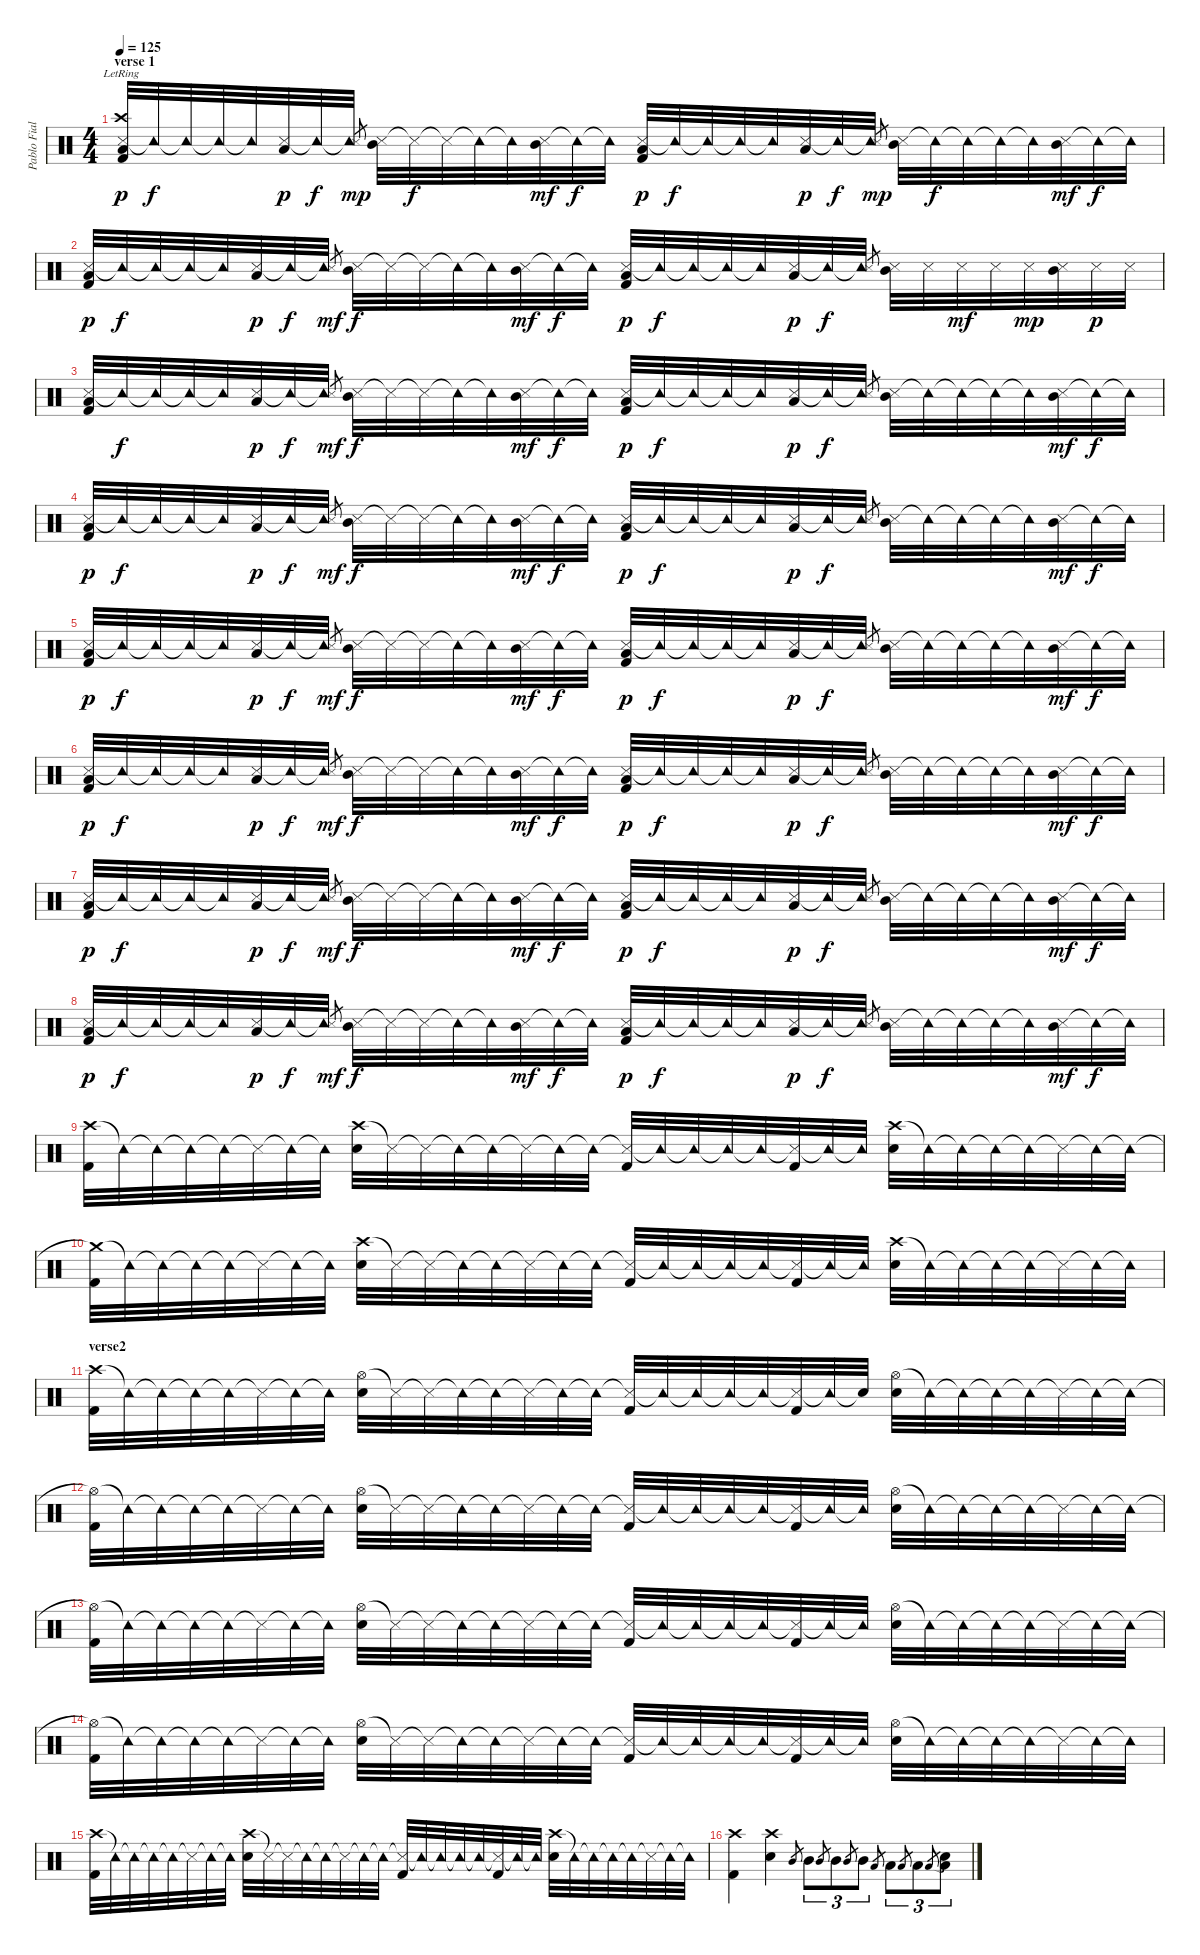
\track ("Pablo Fiallo" "Pablo Fial") {instrument percussion}
\staff {score}
\articulation defaults
\ts (4 4)
\section ("" "verse 1")
\tempo 125
\clef neutral
\ks c
("Snare (side stick) 3" "Crash high (hit)"{lr} "Low Floor Tom (hit)" "Kick (hit) 2").32{dy p} "Tambourine (hit)"{t}.32{dy f} "Tambourine (hit)"{t}.32 "Tambourine (hit)"{t}.32 "Tambourine (hit)"{t}.32 ("Snare (side stick) 3" "Low Floor Tom (hit)").32{dy p} "Tambourine (hit)"{t}.32{dy f} "Tambourine (hit)"{t}.32 "Snare (side stick) 3".8{gr dy mp} ("Snare (side stick) 3" "Mid Tom (hit)").32 "Snare (side stick) 3"{t}.32{dy f} "Snare (side stick) 3"{t}.32 "Tambourine (hit)"{t}.32 "Tambourine (hit)"{t}.32 ("Snare (side stick) 3" "Mid Tom (hit)").32{dy mf} "Tambourine (hit)"{t}.32{dy f} "Tambourine (hit)"{t}.32 ("Snare (side stick) 3" "Low Floor Tom (hit)" "Kick (hit) 2").32{dy p} "Tambourine (hit)"{t}.32{dy f} "Tambourine (hit)"{t}.32 "Tambourine (hit)"{t}.32 "Tambourine (hit)"{t}.32 ("Snare (side stick) 3" "Low Floor Tom (hit)").32{dy p} "Tambourine (hit)"{t}.32{dy f} "Tambourine (hit)"{t}.32 "Snare (side stick) 3".8{gr dy mp} ("Snare (side stick) 3" "Mid Tom (hit)").32 "Tambourine (hit)"{t}.32{dy f} "Tambourine (hit)"{t}.32 "Tambourine (hit)"{t}.32 "Tambourine (hit)"{t}.32 ("Snare (side stick) 3" "Mid Tom (hit)").32{dy mf} "Tambourine (hit)"{t}.32{dy f} "Tambourine (hit)"{t}.32 |
("Snare (side stick) 3" "Low Floor Tom (hit)" "Kick (hit) 2").32{dy p} "Tambourine (hit)"{t}.32{dy f} "Tambourine (hit)"{t}.32 "Tambourine (hit)"{t}.32 "Tambourine (hit)"{t}.32 ("Snare (side stick) 3" "Low Floor Tom (hit)").32{dy p} "Tambourine (hit)"{t}.32{dy f} "Tambourine (hit)"{t}.32 "Snare (side stick) 3".8{gr dy mf} ("Snare (side stick) 3" "Mid Tom (hit)").32{dy f} "Snare (side stick) 3"{t}.32 "Snare (side stick) 3"{t}.32 "Tambourine (hit)"{t}.32 "Tambourine (hit)"{t}.32 ("Snare (side stick) 3" "Mid Tom (hit)").32{dy mf} "Tambourine (hit)"{t}.32{dy f} "Tambourine (hit)"{t}.32 ("Snare (side stick) 3" "Low Floor Tom (hit)" "Kick (hit) 2").32{dy p} "Tambourine (hit)"{t}.32{dy f} "Tambourine (hit)"{t}.32 "Tambourine (hit)"{t}.32 "Tambourine (hit)"{t}.32 ("Snare (side stick) 3" "Low Floor Tom (hit)").32{dy p} "Tambourine (hit)"{t}.32{dy f} "Tambourine (hit)"{t}.32 "Snare (side stick) 3".8{gr} ("Snare (side stick) 3" "Mid Tom (hit)").32 "Snare (side stick) 3".32 "Snare (side stick) 3".32{dy mf} "Snare (side stick) 3".32 "Snare (side stick) 3".32{dy mp} ("Snare (side stick) 3" "Mid Tom (hit)").32 "Snare (side stick) 3".32{dy p} "Snare (side stick) 3".32 |
("Snare (side stick) 3" "Low Floor Tom (hit)" "Kick (hit) 2").32 "Tambourine (hit)"{t}.32{dy f} "Tambourine (hit)"{t}.32 "Tambourine (hit)"{t}.32 "Tambourine (hit)"{t}.32 ("Snare (side stick) 3" "Low Floor Tom (hit)").32{dy p} "Tambourine (hit)"{t}.32{dy f} "Tambourine (hit)"{t}.32 "Snare (side stick) 3".8{gr dy mf} ("Snare (side stick) 3" "Mid Tom (hit)").32{dy f} "Snare (side stick) 3"{t}.32 "Snare (side stick) 3"{t}.32 "Tambourine (hit)"{t}.32 "Tambourine (hit)"{t}.32 ("Snare (side stick) 3" "Mid Tom (hit)").32{dy mf} "Tambourine (hit)"{t}.32{dy f} "Tambourine (hit)"{t}.32 ("Snare (side stick) 3" "Low Floor Tom (hit)" "Kick (hit) 2").32{dy p} "Tambourine (hit)"{t}.32{dy f} "Tambourine (hit)"{t}.32 "Tambourine (hit)"{t}.32 "Tambourine (hit)"{t}.32 ("Snare (side stick) 3" "Low Floor Tom (hit)").32{dy p} "Tambourine (hit)"{t}.32{dy f} "Tambourine (hit)"{t}.32 "Snare (side stick) 3".8{gr} ("Snare (side stick) 3" "Mid Tom (hit)").32 "Tambourine (hit)"{t}.32 "Tambourine (hit)"{t}.32 "Tambourine (hit)"{t}.32 "Tambourine (hit)"{t}.32 ("Snare (side stick) 3" "Mid Tom (hit)").32{dy mf} "Tambourine (hit)"{t}.32{dy f} "Tambourine (hit)"{t}.32 |
("Snare (side stick) 3" "Low Floor Tom (hit)" "Kick (hit) 2").32{dy p} "Tambourine (hit)"{t}.32{dy f} "Tambourine (hit)"{t}.32 "Tambourine (hit)"{t}.32 "Tambourine (hit)"{t}.32 ("Snare (side stick) 3" "Low Floor Tom (hit)").32{dy p} "Tambourine (hit)"{t}.32{dy f} "Tambourine (hit)"{t}.32 "Snare (side stick) 3".8{gr dy mf} ("Snare (side stick) 3" "Mid Tom (hit)").32{dy f} "Snare (side stick) 3"{t}.32 "Snare (side stick) 3"{t}.32 "Tambourine (hit)"{t}.32 "Tambourine (hit)"{t}.32 ("Snare (side stick) 3" "Mid Tom (hit)").32{dy mf} "Tambourine (hit)"{t}.32{dy f} "Tambourine (hit)"{t}.32 ("Snare (side stick) 3" "Low Floor Tom (hit)" "Kick (hit) 2").32{dy p} "Tambourine (hit)"{t}.32{dy f} "Tambourine (hit)"{t}.32 "Tambourine (hit)"{t}.32 "Tambourine (hit)"{t}.32 ("Snare (side stick) 3" "Low Floor Tom (hit)").32{dy p} "Tambourine (hit)"{t}.32{dy f} "Tambourine (hit)"{t}.32 "Snare (side stick) 3".8{gr} ("Snare (side stick) 3" "Mid Tom (hit)").32 "Tambourine (hit)"{t}.32 "Tambourine (hit)"{t}.32 "Tambourine (hit)"{t}.32 "Tambourine (hit)"{t}.32 ("Snare (side stick) 3" "Mid Tom (hit)").32{dy mf} "Tambourine (hit)"{t}.32{dy f} "Tambourine (hit)"{t}.32 |
("Snare (side stick) 3" "Low Floor Tom (hit)" "Kick (hit) 2").32{dy p} "Tambourine (hit)"{t}.32{dy f} "Tambourine (hit)"{t}.32 "Tambourine (hit)"{t}.32 "Tambourine (hit)"{t}.32 ("Snare (side stick) 3" "Low Floor Tom (hit)").32{dy p} "Tambourine (hit)"{t}.32{dy f} "Tambourine (hit)"{t}.32 "Snare (side stick) 3".8{gr dy mf} ("Snare (side stick) 3" "Mid Tom (hit)").32{dy f} "Snare (side stick) 3"{t}.32 "Snare (side stick) 3"{t}.32 "Tambourine (hit)"{t}.32 "Tambourine (hit)"{t}.32 ("Snare (side stick) 3" "Mid Tom (hit)").32{dy mf} "Tambourine (hit)"{t}.32{dy f} "Tambourine (hit)"{t}.32 ("Snare (side stick) 3" "Low Floor Tom (hit)" "Kick (hit) 2").32{dy p} "Tambourine (hit)"{t}.32{dy f} "Tambourine (hit)"{t}.32 "Tambourine (hit)"{t}.32 "Tambourine (hit)"{t}.32 ("Snare (side stick) 3" "Low Floor Tom (hit)").32{dy p} "Tambourine (hit)"{t}.32{dy f} "Tambourine (hit)"{t}.32 "Snare (side stick) 3".8{gr} ("Snare (side stick) 3" "Mid Tom (hit)").32 "Tambourine (hit)"{t}.32 "Tambourine (hit)"{t}.32 "Tambourine (hit)"{t}.32 "Tambourine (hit)"{t}.32 ("Snare (side stick) 3" "Mid Tom (hit)").32{dy mf} "Tambourine (hit)"{t}.32{dy f} "Tambourine (hit)"{t}.32 |
("Snare (side stick) 3" "Low Floor Tom (hit)" "Kick (hit) 2").32{dy p} "Tambourine (hit)"{t}.32{dy f} "Tambourine (hit)"{t}.32 "Tambourine (hit)"{t}.32 "Tambourine (hit)"{t}.32 ("Snare (side stick) 3" "Low Floor Tom (hit)").32{dy p} "Tambourine (hit)"{t}.32{dy f} "Tambourine (hit)"{t}.32 "Snare (side stick) 3".8{gr dy mf} ("Snare (side stick) 3" "Mid Tom (hit)").32{dy f} "Snare (side stick) 3"{t}.32 "Snare (side stick) 3"{t}.32 "Tambourine (hit)"{t}.32 "Tambourine (hit)"{t}.32 ("Snare (side stick) 3" "Mid Tom (hit)").32{dy mf} "Tambourine (hit)"{t}.32{dy f} "Tambourine (hit)"{t}.32 ("Snare (side stick) 3" "Low Floor Tom (hit)" "Kick (hit) 2").32{dy p} "Tambourine (hit)"{t}.32{dy f} "Tambourine (hit)"{t}.32 "Tambourine (hit)"{t}.32 "Tambourine (hit)"{t}.32 ("Snare (side stick) 3" "Low Floor Tom (hit)").32{dy p} "Tambourine (hit)"{t}.32{dy f} "Tambourine (hit)"{t}.32 "Snare (side stick) 3".8{gr} ("Snare (side stick) 3" "Mid Tom (hit)").32 "Tambourine (hit)"{t}.32 "Tambourine (hit)"{t}.32 "Tambourine (hit)"{t}.32 "Tambourine (hit)"{t}.32 ("Snare (side stick) 3" "Mid Tom (hit)").32{dy mf} "Tambourine (hit)"{t}.32{dy f} "Tambourine (hit)"{t}.32 |
("Snare (side stick) 3" "Low Floor Tom (hit)" "Kick (hit) 2").32{dy p} "Tambourine (hit)"{t}.32{dy f} "Tambourine (hit)"{t}.32 "Tambourine (hit)"{t}.32 "Tambourine (hit)"{t}.32 ("Snare (side stick) 3" "Low Floor Tom (hit)").32{dy p} "Tambourine (hit)"{t}.32{dy f} "Tambourine (hit)"{t}.32 "Snare (side stick) 3".8{gr dy mf} ("Snare (side stick) 3" "Mid Tom (hit)").32{dy f} "Snare (side stick) 3"{t}.32 "Snare (side stick) 3"{t}.32 "Tambourine (hit)"{t}.32 "Tambourine (hit)"{t}.32 ("Snare (side stick) 3" "Mid Tom (hit)").32{dy mf} "Tambourine (hit)"{t}.32{dy f} "Tambourine (hit)"{t}.32 ("Snare (side stick) 3" "Low Floor Tom (hit)" "Kick (hit) 2").32{dy p} "Tambourine (hit)"{t}.32{dy f} "Tambourine (hit)"{t}.32 "Tambourine (hit)"{t}.32 "Tambourine (hit)"{t}.32 ("Snare (side stick) 3" "Low Floor Tom (hit)").32{dy p} "Tambourine (hit)"{t}.32{dy f} "Tambourine (hit)"{t}.32 "Snare (side stick) 3".8{gr} ("Snare (side stick) 3" "Mid Tom (hit)").32 "Tambourine (hit)"{t}.32 "Tambourine (hit)"{t}.32 "Tambourine (hit)"{t}.32 "Tambourine (hit)"{t}.32 ("Snare (side stick) 3" "Mid Tom (hit)").32{dy mf} "Tambourine (hit)"{t}.32{dy f} "Tambourine (hit)"{t}.32 |
("Snare (side stick) 3" "Low Floor Tom (hit)" "Kick (hit) 2").32{dy p} "Tambourine (hit)"{t}.32{dy f} "Tambourine (hit)"{t}.32 "Tambourine (hit)"{t}.32 "Tambourine (hit)"{t}.32 ("Snare (side stick) 3" "Low Floor Tom (hit)").32{dy p} "Tambourine (hit)"{t}.32{dy f} "Tambourine (hit)"{t}.32 "Snare (side stick) 3".8{gr dy mf} ("Snare (side stick) 3" "Mid Tom (hit)").32{dy f} "Snare (side stick) 3"{t}.32 "Snare (side stick) 3"{t}.32 "Tambourine (hit)"{t}.32 "Tambourine (hit)"{t}.32 ("Snare (side stick) 3" "Mid Tom (hit)").32{dy mf} "Tambourine (hit)"{t}.32{dy f} "Tambourine (hit)"{t}.32 ("Snare (side stick) 3" "Low Floor Tom (hit)" "Kick (hit) 2").32{dy p} "Tambourine (hit)"{t}.32{dy f} "Tambourine (hit)"{t}.32 "Tambourine (hit)"{t}.32 "Tambourine (hit)"{t}.32 ("Snare (side stick) 3" "Low Floor Tom (hit)").32{dy p} "Tambourine (hit)"{t}.32{dy f} "Tambourine (hit)"{t}.32 "Snare (side stick) 3".8{gr} ("Snare (side stick) 3" "Mid Tom (hit)").32 "Tambourine (hit)"{t}.32 "Tambourine (hit)"{t}.32 "Tambourine (hit)"{t}.32 "Tambourine (hit)"{t}.32 ("Snare (side stick) 3" "Mid Tom (hit)").32{dy mf} "Tambourine (hit)"{t}.32{dy f} "Tambourine (hit)"{t}.32 |
("Crash high (hit)" "Kick (hit) 2").32 "Tambourine (hit)"{t}.32 "Tambourine (hit)"{t}.32 "Tambourine (hit)"{t}.32 "Tambourine (hit)"{t}.32 "Snare (side stick) 3"{t}.32 "Tambourine (hit)"{t}.32 "Tambourine (hit)"{t}.32 ("Crash high (hit)" "Snare (hit) 2").32 "Snare (side stick) 3"{t}.32 "Snare (side stick) 3"{t}.32 "Tambourine (hit)"{t}.32 "Tambourine (hit)"{t}.32 "Snare (side stick) 3"{t}.32 "Tambourine (hit)"{t}.32 "Tambourine (hit)"{t}.32 ("Snare (side stick) 3"{t} "Kick (hit) 2").32 "Tambourine (hit)"{t}.32 "Tambourine (hit)"{t}.32 "Tambourine (hit)"{t}.32 "Tambourine (hit)"{t}.32 ("Snare (side stick) 3"{t} "Kick (hit) 2").32 "Tambourine (hit)"{t}.32 "Tambourine (hit)"{t}.32 ("Crash high (hit)" "Snare (hit) 2").32 "Tambourine (hit)"{t}.32 "Tambourine (hit)"{t}.32 "Tambourine (hit)"{t}.32 "Tambourine (hit)"{t}.32 "Snare (side stick) 3"{t}.32 "Tambourine (hit)"{t}.32 "Tambourine (hit)"{t}.32 |
("Crash medium (hit)"{t} "Kick (hit) 2").32 "Tambourine (hit)"{t}.32 "Tambourine (hit)"{t}.32 "Tambourine (hit)"{t}.32 "Tambourine (hit)"{t}.32 "Snare (side stick) 3"{t}.32 "Tambourine (hit)"{t}.32 "Tambourine (hit)"{t}.32 ("Crash high (hit)" "Snare (hit) 2").32 "Snare (side stick) 3"{t}.32 "Snare (side stick) 3"{t}.32 "Tambourine (hit)"{t}.32 "Tambourine (hit)"{t}.32 "Snare (side stick) 3"{t}.32 "Tambourine (hit)"{t}.32 "Tambourine (hit)"{t}.32 ("Snare (side stick) 3"{t} "Kick (hit) 2").32 "Tambourine (hit)"{t}.32 "Tambourine (hit)"{t}.32 "Tambourine (hit)"{t}.32 "Tambourine (hit)"{t}.32 ("Snare (side stick) 3"{t} "Kick (hit) 2").32 "Tambourine (hit)"{t}.32 "Tambourine (hit)"{t}.32 ("Crash high (hit)" "Snare (hit) 2").32 "Tambourine (hit)"{t}.32 "Tambourine (hit)"{t}.32 "Tambourine (hit)"{t}.32 "Tambourine (hit)"{t}.32 "Snare (side stick) 3"{t}.32 "Tambourine (hit)"{t}.32 "Tambourine (hit)"{t}.32 |
\section ("" "verse2")
("Crash high (hit)" "Kick (hit) 2").32 "Tambourine (hit)"{t}.32 "Tambourine (hit)"{t}.32 "Tambourine (hit)"{t}.32 "Tambourine (hit)"{t}.32 "Snare (side stick) 3"{t}.32 "Tambourine (hit)"{t}.32 "Tambourine (hit)"{t}.32 ("Hi-Hat (open)" "Snare (hit) 2").32 "Snare (side stick) 3"{t}.32 "Snare (side stick) 3"{t}.32 "Tambourine (hit)"{t}.32 "Tambourine (hit)"{t}.32 "Snare (side stick) 3"{t}.32 "Tambourine (hit)"{t}.32 "Tambourine (hit)"{t}.32 ("Snare (side stick) 3"{t} "Kick (hit) 2").32 "Tambourine (hit)"{t}.32 "Tambourine (hit)"{t}.32 "Tambourine (hit)"{t}.32 "Tambourine (hit)"{t}.32 ("Snare (side stick) 3"{t} "Kick (hit) 2").32 "Tambourine (hit)"{t}.32 "Snare (hit)"{t}.32 ("Hi-Hat (open)" "Snare (hit) 2").32 "Tambourine (hit)"{t}.32 "Tambourine (hit)"{t}.32 "Tambourine (hit)"{t}.32 "Tambourine (hit)"{t}.32 "Snare (side stick) 3"{t}.32 "Tambourine (hit)"{t}.32 "Tambourine (hit)"{t}.32 |
("Hi-Hat (open)"{t} "Kick (hit) 2").32 "Tambourine (hit)"{t}.32 "Tambourine (hit)"{t}.32 "Tambourine (hit)"{t}.32 "Tambourine (hit)"{t}.32 "Snare (side stick) 3"{t}.32 "Tambourine (hit)"{t}.32 "Tambourine (hit)"{t}.32 ("Hi-Hat (open)" "Snare (hit) 2").32 "Snare (side stick) 3"{t}.32 "Snare (side stick) 3"{t}.32 "Tambourine (hit)"{t}.32 "Tambourine (hit)"{t}.32 "Snare (side stick) 3"{t}.32 "Tambourine (hit)"{t}.32 "Tambourine (hit)"{t}.32 ("Snare (side stick) 3"{t} "Kick (hit) 2").32 "Tambourine (hit)"{t}.32 "Tambourine (hit)"{t}.32 "Tambourine (hit)"{t}.32 "Tambourine (hit)"{t}.32 ("Snare (side stick) 3"{t} "Kick (hit) 2").32 "Tambourine (hit)"{t}.32 "Tambourine (hit)"{t}.32 ("Hi-Hat (open)" "Snare (hit) 2").32 "Tambourine (hit)"{t}.32 "Tambourine (hit)"{t}.32 "Tambourine (hit)"{t}.32 "Tambourine (hit)"{t}.32 "Snare (side stick) 3"{t}.32 "Tambourine (hit)"{t}.32 "Tambourine (hit)"{t}.32 |
("Hi-Hat (open)"{t} "Kick (hit) 2").32 "Tambourine (hit)"{t}.32 "Tambourine (hit)"{t}.32 "Tambourine (hit)"{t}.32 "Tambourine (hit)"{t}.32 "Snare (side stick) 3"{t}.32 "Tambourine (hit)"{t}.32 "Tambourine (hit)"{t}.32 ("Hi-Hat (open)" "Snare (hit) 2").32 "Snare (side stick) 3"{t}.32 "Snare (side stick) 3"{t}.32 "Tambourine (hit)"{t}.32 "Tambourine (hit)"{t}.32 "Snare (side stick) 3"{t}.32 "Tambourine (hit)"{t}.32 "Tambourine (hit)"{t}.32 ("Snare (side stick) 3"{t} "Kick (hit) 2").32 "Tambourine (hit)"{t}.32 "Tambourine (hit)"{t}.32 "Tambourine (hit)"{t}.32 "Tambourine (hit)"{t}.32 ("Snare (side stick) 3"{t} "Kick (hit) 2").32 "Tambourine (hit)"{t}.32 "Tambourine (hit)"{t}.32 ("Hi-Hat (open)" "Snare (hit) 2").32 "Tambourine (hit)"{t}.32 "Tambourine (hit)"{t}.32 "Tambourine (hit)"{t}.32 "Tambourine (hit)"{t}.32 "Snare (side stick) 3"{t}.32 "Tambourine (hit)"{t}.32 "Tambourine (hit)"{t}.32 |
("Hi-Hat (open)"{t} "Kick (hit) 2").32 "Tambourine (hit)"{t}.32 "Tambourine (hit)"{t}.32 "Tambourine (hit)"{t}.32 "Tambourine (hit)"{t}.32 "Snare (side stick) 3"{t}.32 "Tambourine (hit)"{t}.32 "Tambourine (hit)"{t}.32 ("Hi-Hat (open)" "Snare (hit) 2").32 "Snare (side stick) 3"{t}.32 "Snare (side stick) 3"{t}.32 "Tambourine (hit)"{t}.32 "Tambourine (hit)"{t}.32 "Snare (side stick) 3"{t}.32 "Tambourine (hit)"{t}.32 "Tambourine (hit)"{t}.32 ("Snare (side stick) 3"{t} "Kick (hit) 2").32 "Tambourine (hit)"{t}.32 "Tambourine (hit)"{t}.32 "Tambourine (hit)"{t}.32 "Tambourine (hit)"{t}.32 ("Snare (side stick) 3"{t} "Kick (hit) 2").32 "Tambourine (hit)"{t}.32 "Tambourine (hit)"{t}.32 ("Hi-Hat (open)" "Snare (hit) 2").32 "Tambourine (hit)"{t}.32 "Tambourine (hit)"{t}.32 "Tambourine (hit)"{t}.32 "Tambourine (hit)"{t}.32 "Snare (side stick) 3"{t}.32 "Tambourine (hit)"{t}.32 "Tambourine (hit)"{t}.32 |
("Crash high (hit)" "Kick (hit) 2").32 "Tambourine (hit)"{t}.32 "Tambourine (hit)"{t}.32 "Tambourine (hit)"{t}.32 "Tambourine (hit)"{t}.32 "Snare (side stick) 3"{t}.32 "Tambourine (hit)"{t}.32 "Tambourine (hit)"{t}.32 ("Crash high (hit)" "Snare (hit) 2").32 "Snare (side stick) 3"{t}.32 "Snare (side stick) 3"{t}.32 "Tambourine (hit)"{t}.32 "Tambourine (hit)"{t}.32 "Snare (side stick) 3"{t}.32 "Tambourine (hit)"{t}.32 "Tambourine (hit)"{t}.32 ("Snare (side stick) 3"{t} "Kick (hit) 2").32 "Tambourine (hit)"{t}.32 "Tambourine (hit)"{t}.32 "Tambourine (hit)"{t}.32 "Tambourine (hit)"{t}.32 ("Snare (side stick) 3"{t} "Kick (hit) 2").32 "Tambourine (hit)"{t}.32 "Tambourine (hit)"{t}.32 ("Crash high (hit)" "Snare (hit) 2").32 "Tambourine (hit)"{t}.32 "Tambourine (hit)"{t}.32 "Tambourine (hit)"{t}.32 "Tambourine (hit)"{t}.32 "Snare (side stick) 3"{t}.32 "Tambourine (hit)"{t}.32 "Tambourine (hit)"{t}.32 |
("Crash high (hit)" "Kick (hit) 2").4 ("Crash high (hit)" "Snare (hit) 2").4 "Mid Tom (hit)".8{gr} "Mid Tom (hit)".8{tu (3 2)} "Mid Tom (hit)".8{gr} "Mid Tom (hit)".8{tu (3 2)} "Mid Tom (hit)".8{gr} "Mid Tom (hit)".8{tu (3 2)} "Low Tom (hit)".8{gr} "Low Tom (hit)".8{tu (3 2)} "Low Tom (hit)".8{gr} "Low Tom (hit)".8{tu (3 2)} "Low Tom (hit)".8{gr} ("Snare (hit)"{t} "Low Tom (hit)").8{tu (3 2)}
